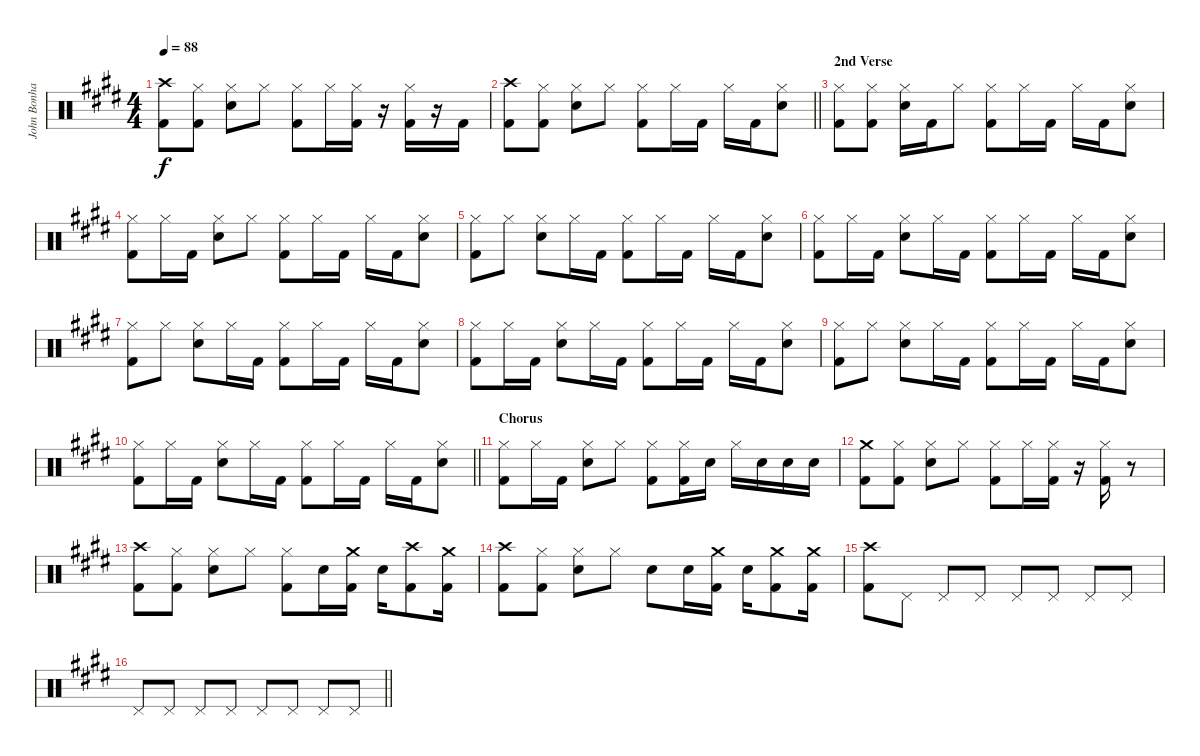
\track ("John Bonham Drums" "John Bonha") {instrument percussion}
\staff {score}
\articulation defaults
\ts (4 4)
\tempo 88
\clef neutral
\ks e
("Crash high (hit)" "Kick (hit) 2").8{dy f} ("Hi-Hat (closed)" "Kick (hit) 2").8 ("Hi-Hat (closed)" "Snare (hit) 2").8 "Hi-Hat (closed)".8 ("Hi-Hat (closed)" "Kick (hit) 2").8 "Hi-Hat (closed)".16 ("Hi-Hat (closed)" "Kick (hit) 2").16 r.16 ("Hi-Hat (closed)" "Kick (hit) 2").16 r.16 "Kick (hit) 2".16 |
\barLineRight lightlight
("Crash high (hit)" "Kick (hit) 2").8 ("Hi-Hat (closed)" "Kick (hit) 2").8 ("Hi-Hat (closed)" "Snare (hit) 2").8 "Hi-Hat (closed)".8 ("Hi-Hat (closed)" "Kick (hit) 2").8 "Hi-Hat (closed)".16 "Kick (hit) 2".16 "Hi-Hat (closed)".16 "Kick (hit) 2".16 ("Hi-Hat (closed)" "Snare (hit) 2").8 |
\section ("" "2nd Verse")
("Hi-Hat (closed)" "Kick (hit) 2").8 ("Hi-Hat (closed)" "Kick (hit) 2").8 ("Hi-Hat (closed)" "Snare (hit) 2").16 "Kick (hit) 2".16 "Hi-Hat (closed)".8 ("Hi-Hat (closed)" "Kick (hit) 2").8 "Hi-Hat (closed)".16 "Kick (hit) 2".16 "Hi-Hat (closed)".16 "Kick (hit) 2".16 ("Hi-Hat (closed)" "Snare (hit) 2").8 |
("Hi-Hat (closed)" "Kick (hit) 2").8 "Hi-Hat (closed)".16 "Kick (hit) 2".16 ("Hi-Hat (closed)" "Snare (hit) 2").8 "Hi-Hat (closed)".8 ("Hi-Hat (closed)" "Kick (hit) 2").8 "Hi-Hat (closed)".16 "Kick (hit) 2".16 "Hi-Hat (closed)".16 "Kick (hit) 2".16 ("Hi-Hat (closed)" "Snare (hit) 2").8 |
("Hi-Hat (closed)" "Kick (hit) 2").8 "Hi-Hat (closed)".8 ("Hi-Hat (closed)" "Snare (hit) 2").8 "Hi-Hat (closed)".16 "Kick (hit) 2".16 ("Hi-Hat (closed)" "Kick (hit) 2").8 "Hi-Hat (closed)".16 "Kick (hit) 2".16 "Hi-Hat (closed)".16 "Kick (hit) 2".16 ("Hi-Hat (closed)" "Snare (hit) 2").8 |
("Hi-Hat (closed)" "Kick (hit) 2").8 "Hi-Hat (closed)".16 "Kick (hit) 2".16 ("Hi-Hat (closed)" "Snare (hit) 2").8 "Hi-Hat (closed)".16 "Kick (hit) 2".16 ("Hi-Hat (closed)" "Kick (hit) 2").8 "Hi-Hat (closed)".16 "Kick (hit) 2".16 "Hi-Hat (closed)".16 "Kick (hit) 2".16 ("Hi-Hat (closed)" "Snare (hit) 2").8 |
("Hi-Hat (closed)" "Kick (hit) 2").8 "Hi-Hat (closed)".8 ("Hi-Hat (closed)" "Snare (hit) 2").8 "Hi-Hat (closed)".16 "Kick (hit) 2".16 ("Hi-Hat (closed)" "Kick (hit) 2").8 "Hi-Hat (closed)".16 "Kick (hit) 2".16 "Hi-Hat (closed)".16 "Kick (hit) 2".16 ("Hi-Hat (closed)" "Snare (hit) 2").8 |
("Hi-Hat (closed)" "Kick (hit) 2").8 "Hi-Hat (closed)".16 "Kick (hit) 2".16 ("Hi-Hat (closed)" "Snare (hit) 2").8 "Hi-Hat (closed)".16 "Kick (hit) 2".16 ("Hi-Hat (closed)" "Kick (hit) 2").8 "Hi-Hat (closed)".16 "Kick (hit) 2".16 "Hi-Hat (closed)".16 "Kick (hit) 2".16 ("Hi-Hat (closed)" "Snare (hit) 2").8 |
("Hi-Hat (closed)" "Kick (hit) 2").8 "Hi-Hat (closed)".8 ("Hi-Hat (closed)" "Snare (hit) 2").8 "Hi-Hat (closed)".16 "Kick (hit) 2".16 ("Hi-Hat (closed)" "Kick (hit) 2").8 "Hi-Hat (closed)".16 "Kick (hit) 2".16 "Hi-Hat (closed)".16 "Kick (hit) 2".16 ("Hi-Hat (closed)" "Snare (hit) 2").8 |
\barLineRight lightlight
("Hi-Hat (closed)" "Kick (hit) 2").8 "Hi-Hat (closed)".16 "Kick (hit) 2".16 ("Hi-Hat (closed)" "Snare (hit) 2").8 "Hi-Hat (closed)".16 "Kick (hit) 2".16 ("Hi-Hat (closed)" "Kick (hit) 2").8 "Hi-Hat (closed)".16 "Kick (hit) 2".16 "Hi-Hat (closed)".16 "Kick (hit) 2".16 ("Hi-Hat (closed)" "Snare (hit) 2").8 |
\section ("" "Chorus")
("Hi-Hat (closed)" "Kick (hit) 2").8 "Hi-Hat (closed)".16 "Kick (hit) 2".16 ("Hi-Hat (closed)" "Snare (hit) 2").8 "Hi-Hat (closed)".8 ("Hi-Hat (closed)" "Kick (hit) 2").8 ("Hi-Hat (closed)" "Kick (hit) 2").16 "Snare (hit) 2".16 "Hi-Hat (closed)".16 "Snare (hit) 2".16 "Snare (hit) 2".16 "Snare (hit) 2".16 |
("Crash medium (hit)" "Kick (hit) 2").8 ("Hi-Hat (closed)" "Kick (hit) 2").8 ("Hi-Hat (closed)" "Snare (hit) 2").8 "Hi-Hat (closed)".8 ("Hi-Hat (closed)" "Kick (hit) 2").8 "Hi-Hat (closed)".16 ("Hi-Hat (closed)" "Kick (hit) 2").16 r.16 ("Hi-Hat (closed)" "Kick (hit) 2").16 r.8 |
("Crash high (hit)" "Kick (hit) 2").8 ("Hi-Hat (closed)" "Kick (hit) 2").8 ("Hi-Hat (closed)" "Snare (hit) 2").8 "Hi-Hat (closed)".8 ("Hi-Hat (closed)" "Kick (hit) 2").8 "Snare (hit) 2".16 ("Crash medium (hit)" "Kick (hit) 2").16 "Snare (hit)".16 ("Crash high (hit)" "Kick (hit) 2").8 ("Crash medium (hit)" "Kick (hit) 2").16 |
("Crash high (hit)" "Kick (hit) 2").8 ("Hi-Hat (closed)" "Kick (hit) 2").8 ("Hi-Hat (closed)" "Snare (hit) 2").8 "Hi-Hat (closed)".8 "Snare (hit) 2".8 "Snare (hit) 2".16 ("Crash medium (hit)" "Kick (hit) 2").16 "Snare (hit)".16 ("Crash medium (hit)" "Kick (hit) 2").8 ("Crash medium (hit)" "Kick (hit) 2").16 |
("Crash high (hit)" "Kick (hit) 2").8 "Pedal Hi-Hat (hit)".8 "Pedal Hi-Hat (hit)".8 "Pedal Hi-Hat (hit)".8 "Pedal Hi-Hat (hit)".8 "Pedal Hi-Hat (hit)".8 "Pedal Hi-Hat (hit)".8 "Pedal Hi-Hat (hit)".8 |
\barLineRight lightlight "Pedal Hi-Hat (hit)".8 "Pedal Hi-Hat (hit)".8 "Pedal Hi-Hat (hit)".8 "Pedal Hi-Hat (hit)".8 "Pedal Hi-Hat (hit)".8 "Pedal Hi-Hat (hit)".8 "Pedal Hi-Hat (hit)".8 "Pedal Hi-Hat (hit)".8
